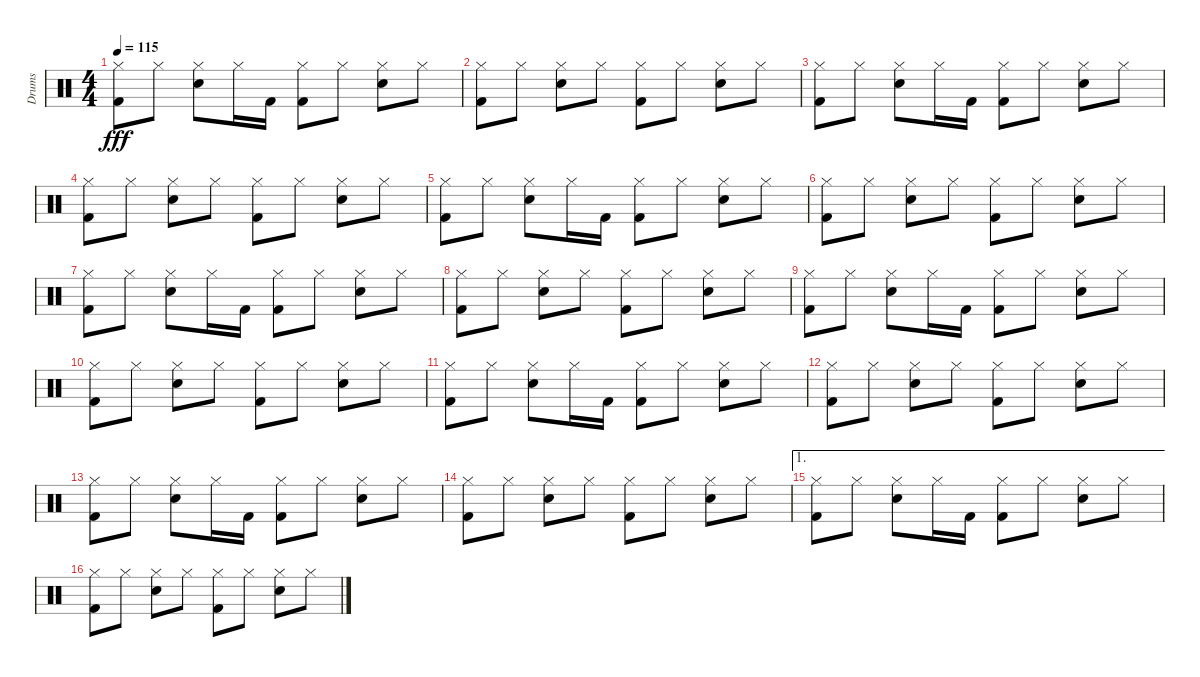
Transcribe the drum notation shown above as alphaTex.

\track ("Drums" "Drums") {instrument percussion}
\staff {score}
\articulation defaults
\ts (4 4)
\tempo 115
\clef neutral
\ks c
("Kick (hit) 2" "Hi-Hat (closed)").8{dy fff} "Hi-Hat (closed)".8 ("Electric Snare (hit)" "Hi-Hat (closed)").8 "Hi-Hat (closed)".16 "Kick (hit) 2".16 ("Kick (hit) 2" "Hi-Hat (closed)").8 "Hi-Hat (closed)".8 ("Electric Snare (hit)" "Hi-Hat (closed)").8 "Hi-Hat (closed)".8 |
("Kick (hit) 2" "Hi-Hat (closed)").8 "Hi-Hat (closed)".8 ("Electric Snare (hit)" "Hi-Hat (closed)").8 "Hi-Hat (closed)".8 ("Kick (hit) 2" "Hi-Hat (closed)").8 "Hi-Hat (closed)".8 ("Electric Snare (hit)" "Hi-Hat (closed)").8 "Hi-Hat (closed)".8 |
("Kick (hit) 2" "Hi-Hat (closed)").8 "Hi-Hat (closed)".8 ("Electric Snare (hit)" "Hi-Hat (closed)").8 "Hi-Hat (closed)".16 "Kick (hit) 2".16 ("Kick (hit) 2" "Hi-Hat (closed)").8 "Hi-Hat (closed)".8 ("Electric Snare (hit)" "Hi-Hat (closed)").8 "Hi-Hat (closed)".8 |
("Kick (hit) 2" "Hi-Hat (closed)").8 "Hi-Hat (closed)".8 ("Electric Snare (hit)" "Hi-Hat (closed)").8 "Hi-Hat (closed)".8 ("Kick (hit) 2" "Hi-Hat (closed)").8 "Hi-Hat (closed)".8 ("Electric Snare (hit)" "Hi-Hat (closed)").8 "Hi-Hat (closed)".8 |
("Kick (hit) 2" "Hi-Hat (closed)").8 "Hi-Hat (closed)".8 ("Electric Snare (hit)" "Hi-Hat (closed)").8 "Hi-Hat (closed)".16 "Kick (hit) 2".16 ("Kick (hit) 2" "Hi-Hat (closed)").8 "Hi-Hat (closed)".8 ("Electric Snare (hit)" "Hi-Hat (closed)").8 "Hi-Hat (closed)".8 |
("Kick (hit) 2" "Hi-Hat (closed)").8 "Hi-Hat (closed)".8 ("Hi-Hat (closed)" "Electric Snare (hit)").8 "Hi-Hat (closed)".8 ("Kick (hit) 2" "Hi-Hat (closed)").8 "Hi-Hat (closed)".8 ("Hi-Hat (closed)" "Electric Snare (hit)").8 "Hi-Hat (closed)".8 |
("Kick (hit) 2" "Hi-Hat (closed)").8 "Hi-Hat (closed)".8 ("Hi-Hat (closed)" "Electric Snare (hit)").8 "Hi-Hat (closed)".16 "Kick (hit) 2".16 ("Kick (hit) 2" "Hi-Hat (closed)").8 "Hi-Hat (closed)".8 ("Electric Snare (hit)" "Hi-Hat (closed)").8 "Hi-Hat (closed)".8 |
("Kick (hit) 2" "Hi-Hat (closed)").8 "Hi-Hat (closed)".8 ("Electric Snare (hit)" "Hi-Hat (closed)").8 "Hi-Hat (closed)".8 ("Kick (hit) 2" "Hi-Hat (closed)").8 "Hi-Hat (closed)".8 ("Electric Snare (hit)" "Hi-Hat (closed)").8 "Hi-Hat (closed)".8 |
("Kick (hit) 2" "Hi-Hat (closed)").8 "Hi-Hat (closed)".8 ("Electric Snare (hit)" "Hi-Hat (closed)").8 "Hi-Hat (closed)".16 "Kick (hit) 2".16 ("Kick (hit) 2" "Hi-Hat (closed)").8 "Hi-Hat (closed)".8 ("Electric Snare (hit)" "Hi-Hat (closed)").8 "Hi-Hat (closed)".8 |
("Kick (hit) 2" "Hi-Hat (closed)").8 "Hi-Hat (closed)".8 ("Electric Snare (hit)" "Hi-Hat (closed)").8 "Hi-Hat (closed)".8 ("Kick (hit) 2" "Hi-Hat (closed)").8 "Hi-Hat (closed)".8 ("Electric Snare (hit)" "Hi-Hat (closed)").8 "Hi-Hat (closed)".8 |
("Kick (hit) 2" "Hi-Hat (closed)").8 "Hi-Hat (closed)".8 ("Electric Snare (hit)" "Hi-Hat (closed)").8 "Hi-Hat (closed)".16 "Kick (hit) 2".16 ("Kick (hit) 2" "Hi-Hat (closed)").8 "Hi-Hat (closed)".8 ("Electric Snare (hit)" "Hi-Hat (closed)").8 "Hi-Hat (closed)".8 |
("Kick (hit) 2" "Hi-Hat (closed)").8 "Hi-Hat (closed)".8 ("Electric Snare (hit)" "Hi-Hat (closed)").8 "Hi-Hat (closed)".8 ("Kick (hit) 2" "Hi-Hat (closed)").8 "Hi-Hat (closed)".8 ("Electric Snare (hit)" "Hi-Hat (closed)").8 "Hi-Hat (closed)".8 |
("Kick (hit) 2" "Hi-Hat (closed)").8 "Hi-Hat (closed)".8 ("Electric Snare (hit)" "Hi-Hat (closed)").8 "Hi-Hat (closed)".16 "Kick (hit) 2".16 ("Kick (hit) 2" "Hi-Hat (closed)").8 "Hi-Hat (closed)".8 ("Electric Snare (hit)" "Hi-Hat (closed)").8 "Hi-Hat (closed)".8 |
("Kick (hit) 2" "Hi-Hat (closed)").8 "Hi-Hat (closed)".8 ("Electric Snare (hit)" "Hi-Hat (closed)").8 "Hi-Hat (closed)".8 ("Kick (hit) 2" "Hi-Hat (closed)").8 "Hi-Hat (closed)".8 ("Electric Snare (hit)" "Hi-Hat (closed)").8 "Hi-Hat (closed)".8 |
\ae 1
("Kick (hit) 2" "Hi-Hat (closed)").8 "Hi-Hat (closed)".8 ("Electric Snare (hit)" "Hi-Hat (closed)").8 "Hi-Hat (closed)".16 "Kick (hit) 2".16 ("Kick (hit) 2" "Hi-Hat (closed)").8 "Hi-Hat (closed)".8 ("Electric Snare (hit)" "Hi-Hat (closed)").8 "Hi-Hat (closed)".8 |
("Kick (hit) 2" "Hi-Hat (closed)").8 "Hi-Hat (closed)".8 ("Electric Snare (hit)" "Hi-Hat (closed)").8 "Hi-Hat (closed)".8 ("Kick (hit) 2" "Hi-Hat (closed)").8 "Hi-Hat (closed)".8 ("Electric Snare (hit)" "Hi-Hat (closed)").8 "Hi-Hat (closed)".8
